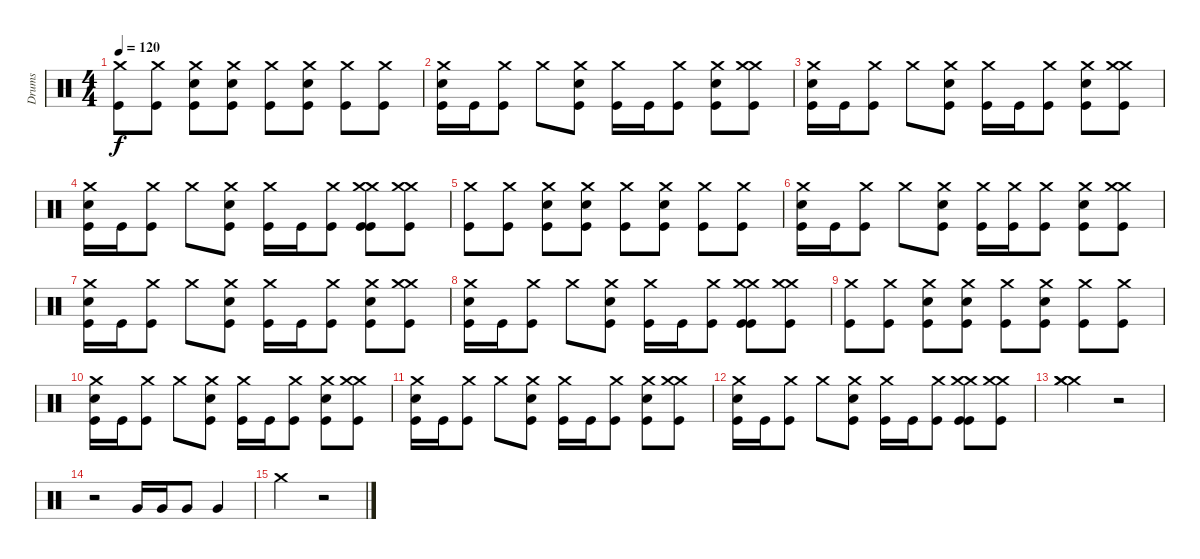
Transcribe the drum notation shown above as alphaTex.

\track ("Drums" "Drums") {instrument percussion}
\staff {score}
\articulation defaults
\ts (4 4)
\tempo 120
\clef neutral
\ks c
("Crash medium (hit)" "Kick (hit)").8{dy f} ("Crash medium (hit)" "Kick (hit)").8 ("Crash medium (hit)" "Snare (hit) 2" "Kick (hit)").8 ("Crash medium (hit)" "Snare (hit) 2" "Kick (hit)").8 ("Crash medium (hit)" "Kick (hit)").8 ("Crash medium (hit)" "Snare (hit) 2" "Kick (hit)").8 ("Crash medium (hit)" "Kick (hit)").8 ("Crash medium (hit)" "Kick (hit)").8 |
("Crash medium (hit)" "Snare (hit) 2" "Kick (hit)").16 "Kick (hit)".16 ("Crash medium (hit)" "Kick (hit)").8 "Crash medium (hit)".8 ("Crash medium (hit)" "Snare (hit) 2" "Kick (hit)").8 ("Crash medium (hit)" "Kick (hit)").16 "Kick (hit)".16 ("Crash medium (hit)" "Kick (hit)").8 ("Crash medium (hit)" "Snare (hit) 2" "Kick (hit)").8 ("Crash medium (hit)" "Crash medium (hit)" "Kick (hit)").8 |
("Crash medium (hit)" "Snare (hit) 2" "Kick (hit)").16 "Kick (hit)".16 ("Crash medium (hit)" "Kick (hit)").8 "Crash medium (hit)".8 ("Crash medium (hit)" "Snare (hit) 2" "Kick (hit)").8 ("Crash medium (hit)" "Kick (hit)").16 "Kick (hit)".16 ("Crash medium (hit)" "Kick (hit)").8 ("Crash medium (hit)" "Snare (hit) 2" "Kick (hit)").8 ("Crash medium (hit)" "Crash medium (hit)" "Kick (hit)").8 |
("Crash medium (hit)" "Snare (hit) 2" "Kick (hit)").16 "Kick (hit)".16 ("Crash medium (hit)" "Kick (hit)").8 "Crash medium (hit)".8 ("Crash medium (hit)" "Snare (hit) 2" "Kick (hit)").8 ("Crash medium (hit)" "Kick (hit)").16 "Kick (hit)".16 ("Crash medium (hit)" "Kick (hit)").8 ("Crash medium (hit)" "Crash medium (hit)" "Kick (hit)" "Kick (hit)").8 ("Crash medium (hit)" "Crash medium (hit)" "Kick (hit)").8 |
("Crash medium (hit)" "Kick (hit)").8 ("Crash medium (hit)" "Kick (hit)").8 ("Crash medium (hit)" "Snare (hit) 2" "Kick (hit)").8 ("Crash medium (hit)" "Snare (hit) 2" "Kick (hit)").8 ("Crash medium (hit)" "Kick (hit)").8 ("Crash medium (hit)" "Snare (hit) 2" "Kick (hit)").8 ("Crash medium (hit)" "Kick (hit)").8 ("Crash medium (hit)" "Kick (hit)").8 |
("Crash medium (hit)" "Snare (hit) 2" "Kick (hit)").16 "Kick (hit)".16 ("Crash medium (hit)" "Kick (hit)").8 "Crash medium (hit)".8 ("Crash medium (hit)" "Snare (hit) 2" "Kick (hit)").8 ("Crash medium (hit)" "Kick (hit)").16 ("Crash medium (hit)" "Kick (hit)").16 ("Crash medium (hit)" "Kick (hit)").8 ("Crash medium (hit)" "Snare (hit) 2" "Kick (hit)").8 ("Crash medium (hit)" "Crash medium (hit)" "Kick (hit)").8 |
("Crash medium (hit)" "Snare (hit) 2" "Kick (hit)").16 "Kick (hit)".16 ("Crash medium (hit)" "Kick (hit)").8 "Crash medium (hit)".8 ("Crash medium (hit)" "Snare (hit) 2" "Kick (hit)").8 ("Crash medium (hit)" "Kick (hit)").16 "Kick (hit)".16 ("Crash medium (hit)" "Kick (hit)").8 ("Crash medium (hit)" "Snare (hit) 2" "Kick (hit)").8 ("Crash medium (hit)" "Crash medium (hit)" "Kick (hit)").8 |
("Crash medium (hit)" "Snare (hit) 2" "Kick (hit)").16 "Kick (hit)".16 ("Crash medium (hit)" "Kick (hit)").8 "Crash medium (hit)".8 ("Crash medium (hit)" "Snare (hit) 2" "Kick (hit)").8 ("Crash medium (hit)" "Kick (hit)").16 "Kick (hit)".16 ("Crash medium (hit)" "Kick (hit)").8 ("Crash medium (hit)" "Crash medium (hit)" "Kick (hit)" "Kick (hit)").8 ("Crash medium (hit)" "Crash medium (hit)" "Kick (hit)").8 |
("Crash medium (hit)" "Kick (hit)").8 ("Crash medium (hit)" "Kick (hit)").8 ("Crash medium (hit)" "Snare (hit) 2" "Kick (hit)").8 ("Crash medium (hit)" "Snare (hit) 2" "Kick (hit)").8 ("Crash medium (hit)" "Kick (hit)").8 ("Crash medium (hit)" "Snare (hit) 2" "Kick (hit)").8 ("Crash medium (hit)" "Kick (hit)").8 ("Crash medium (hit)" "Kick (hit)").8 |
("Crash medium (hit)" "Snare (hit) 2" "Kick (hit)").16 "Kick (hit)".16 ("Crash medium (hit)" "Kick (hit)").8 "Crash medium (hit)".8 ("Crash medium (hit)" "Snare (hit) 2" "Kick (hit)").8 ("Crash medium (hit)" "Kick (hit)").16 "Kick (hit)".16 ("Crash medium (hit)" "Kick (hit)").8 ("Crash medium (hit)" "Snare (hit) 2" "Kick (hit)").8 ("Crash medium (hit)" "Crash medium (hit)" "Kick (hit)").8 |
("Crash medium (hit)" "Snare (hit) 2" "Kick (hit)").16 "Kick (hit)".16 ("Crash medium (hit)" "Kick (hit)").8 "Crash medium (hit)".8 ("Crash medium (hit)" "Snare (hit) 2" "Kick (hit)").8 ("Crash medium (hit)" "Kick (hit)").16 "Kick (hit)".16 ("Crash medium (hit)" "Kick (hit)").8 ("Crash medium (hit)" "Snare (hit) 2" "Kick (hit)").8 ("Crash medium (hit)" "Crash medium (hit)" "Kick (hit)").8 |
("Crash medium (hit)" "Snare (hit) 2" "Kick (hit)").16 "Kick (hit)".16 ("Crash medium (hit)" "Kick (hit)").8 "Crash medium (hit)".8 ("Crash medium (hit)" "Snare (hit) 2" "Kick (hit)").8 ("Crash medium (hit)" "Kick (hit)").16 "Kick (hit)".16 ("Crash medium (hit)" "Kick (hit)").8 ("Crash medium (hit)" "Crash medium (hit)" "Kick (hit)" "Kick (hit)").8 ("Crash medium (hit)" "Crash medium (hit)" "Kick (hit)").8 |
("Crash medium (hit)" "Crash medium (hit)" "Crash medium (hit)").2 r.2 |
r.2 "Very Low Tom (hit)".16 "Very Low Tom (hit)".16 "Very Low Tom (hit)".8 "Very Low Tom (hit)".4 |
"Crash medium (hit)".2 r.2
